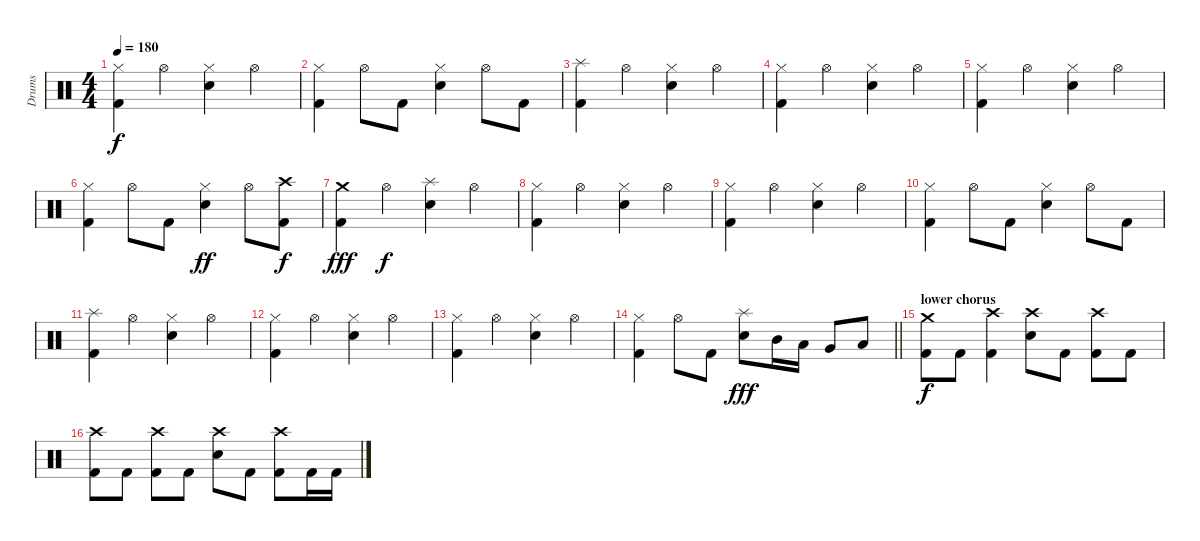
\track ("Drums" "Drums") {instrument percussion}
\staff {score}
\articulation defaults
\ts (4 4)
\tempo 180
\clef neutral
\ks c
("Kick (hit) 2" "Hi-Hat (closed)").4{dy f} "Hi-Hat (open)".4 ("Hi-Hat (closed)" "Snare (hit) 2").4 "Hi-Hat (open)".4 |
("Kick (hit) 2" "Hi-Hat (closed)").4 "Hi-Hat (open)".8 "Kick (hit) 2".8 ("Hi-Hat (closed)" "Snare (hit) 2").4 "Hi-Hat (open)".8 "Kick (hit) 2".8 |
("Kick (hit) 2" "Splash (hit)").4 "Hi-Hat (open)".4 ("Hi-Hat (closed)" "Snare (hit) 2").4 "Hi-Hat (open)".4 |
("Kick (hit) 2" "Hi-Hat (closed)").4 "Hi-Hat (open)".4 ("Hi-Hat (closed)" "Snare (hit) 2").4 "Hi-Hat (open)".4 |
("Kick (hit) 2" "Hi-Hat (closed)").4 "Hi-Hat (open)".4 ("Hi-Hat (closed)" "Snare (hit) 2").4 "Hi-Hat (open)".4 |
("Kick (hit) 2" "Hi-Hat (closed)").4 "Hi-Hat (open)".8 "Kick (hit) 2".8 ("Hi-Hat (closed)" "Snare (hit) 2").4{dy ff} "Hi-Hat (open)".8 ("Kick (hit) 2" "Crash high (hit)").8{dy f} |
("Kick (hit) 2" "Crash medium (hit)").4{dy fff} "Hi-Hat (open)".4{dy f} ("Splash (hit)" "Snare (hit) 2").4 "Hi-Hat (open)".4 |
("Kick (hit) 2" "Hi-Hat (closed)").4 "Hi-Hat (open)".4 ("Hi-Hat (closed)" "Snare (hit) 2").4 "Hi-Hat (open)".4 |
("Kick (hit) 2" "Hi-Hat (closed)").4 "Hi-Hat (open)".4 ("Hi-Hat (closed)" "Snare (hit) 2").4 "Hi-Hat (open)".4 |
("Kick (hit) 2" "Hi-Hat (closed)").4 "Hi-Hat (open)".8 "Kick (hit) 2".8 ("Hi-Hat (closed)" "Snare (hit) 2").4 "Hi-Hat (open)".8 "Kick (hit) 2".8 |
("Kick (hit) 2" "Splash (hit)").4 "Hi-Hat (open)".4 ("Hi-Hat (closed)" "Snare (hit) 2").4 "Hi-Hat (open)".4 |
("Kick (hit) 2" "Hi-Hat (closed)").4 "Hi-Hat (open)".4 ("Hi-Hat (closed)" "Snare (hit) 2").4 "Hi-Hat (open)".4 |
("Kick (hit) 2" "Hi-Hat (closed)").4 "Hi-Hat (open)".4 ("Hi-Hat (closed)" "Snare (hit) 2").4 "Hi-Hat (open)".4 |
\barLineRight lightlight
("Kick (hit) 2" "Hi-Hat (closed)").4 "Hi-Hat (open)".8 "Kick (hit) 2".8 ("Splash (hit)" "Snare (hit) 2").8{dy fff} "Mid Tom (hit)".16 "Low Tom (hit)".16 "Very Low Tom (hit)".8 "Low Floor Tom (hit)".8 |
\section ("" "lower chorus")
("Kick (hit) 2" "Crash medium (hit)").8{dy f} "Kick (hit) 2".8 ("Kick (hit) 2" "Crash high (hit)").4 ("Crash high (hit)" "Snare (hit) 2").8 "Kick (hit) 2".8 ("Kick (hit) 2" "Crash high (hit)").8 "Kick (hit) 2".8 |
("Kick (hit) 2" "Crash high (hit)").8 "Kick (hit) 2".8 ("Kick (hit) 2" "Crash high (hit)").8 "Kick (hit) 2".8 ("Crash high (hit)" "Snare (hit) 2").8 "Kick (hit) 2".8 ("Kick (hit) 2" "Crash high (hit)").8 "Kick (hit) 2".16 "Kick (hit) 2".16
